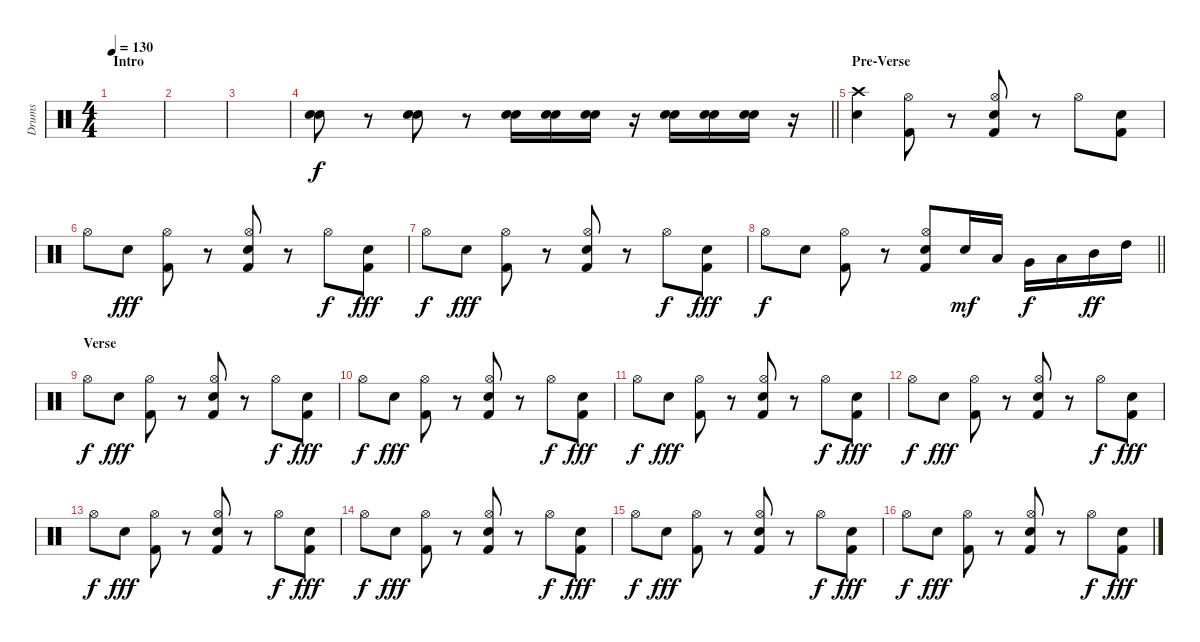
\track ("Drums" "Drums") {instrument percussion}
\staff {score}
\articulation defaults
\ts (4 4)
\section ("" "Intro")
\tempo 130
\clef neutral
\ks c
|
|
|
\barLineRight lightlight
("Electric Snare (hit)" "Snare (hit) 2").8 r.8 ("Electric Snare (hit)" "Snare (hit) 2").8 r.8 ("Electric Snare (hit)" "Snare (hit) 2").16 ("Electric Snare (hit)" "Snare (hit) 2").16 ("Electric Snare (hit)" "Snare (hit) 2").16 r.16 ("Electric Snare (hit)" "Snare (hit) 2").16 ("Electric Snare (hit)" "Snare (hit) 2").16 ("Electric Snare (hit)" "Snare (hit) 2").16 r.16 |
\section ("" "Pre-Verse")
("Crash high (hit)" "Electric Snare (hit)").4 ("Hi-Hat (open)" "Kick (hit) 2").8 r.8 ("Hi-Hat (open)" "Electric Snare (hit)" "Kick (hit) 2").8 r.8 "Hi-Hat (open)".8 ("Electric Snare (hit)" "Kick (hit) 2").8 |
"Hi-Hat (open)".8 "Snare (hit) 2".8{dy fff} ("Hi-Hat (open)" "Kick (hit) 2").8 r.8 ("Hi-Hat (open)" "Snare (hit) 2" "Kick (hit) 2").8 r.8 "Hi-Hat (open)".8{dy f} ("Snare (hit) 2" "Kick (hit) 2").8{dy fff} |
"Hi-Hat (open)".8{dy f} "Snare (hit) 2".8{dy fff} ("Hi-Hat (open)" "Kick (hit) 2").8 r.8 ("Hi-Hat (open)" "Snare (hit) 2" "Kick (hit) 2").8 r.8 "Hi-Hat (open)".8{dy f} ("Snare (hit) 2" "Kick (hit) 2").8{dy fff} |
\barLineRight lightlight "Hi-Hat (open)".8{dy f} "Electric Snare (hit)".8
("Hi-Hat (open)" "Kick (hit) 2").8 r.8 ("Hi-Hat (open)" "Electric Snare (hit)" "Kick (hit) 2").8 "Electric Snare (hit)".16{dy mf} "Low Floor Tom (hit)".16 "Very Low Tom (hit)".16{dy f} "Low Tom (hit)".16 "Mid Tom (hit)".16{dy ff} "High Tom (hit)".16 |
\section ("" "Verse")
"Hi-Hat (open)".8{dy f} "Snare (hit) 2".8{dy fff} ("Hi-Hat (open)" "Kick (hit) 2").8 r.8 ("Hi-Hat (open)" "Snare (hit) 2" "Kick (hit) 2").8 r.8 "Hi-Hat (open)".8{dy f} ("Snare (hit) 2" "Kick (hit) 2").8{dy fff} |
"Hi-Hat (open)".8{dy f} "Snare (hit) 2".8{dy fff} ("Hi-Hat (open)" "Kick (hit) 2").8 r.8 ("Hi-Hat (open)" "Snare (hit) 2" "Kick (hit) 2").8 r.8 "Hi-Hat (open)".8{dy f} ("Snare (hit) 2" "Kick (hit) 2").8{dy fff} |
"Hi-Hat (open)".8{dy f} "Snare (hit) 2".8{dy fff} ("Hi-Hat (open)" "Kick (hit) 2").8 r.8 ("Hi-Hat (open)" "Snare (hit) 2" "Kick (hit) 2").8 r.8 "Hi-Hat (open)".8{dy f} ("Snare (hit) 2" "Kick (hit) 2").8{dy fff} |
"Hi-Hat (open)".8{dy f} "Snare (hit) 2".8{dy fff} ("Hi-Hat (open)" "Kick (hit) 2").8 r.8 ("Hi-Hat (open)" "Snare (hit) 2" "Kick (hit) 2").8 r.8 "Hi-Hat (open)".8{dy f} ("Snare (hit) 2" "Kick (hit) 2").8{dy fff} |
"Hi-Hat (open)".8{dy f} "Snare (hit) 2".8{dy fff} ("Hi-Hat (open)" "Kick (hit) 2").8 r.8 ("Hi-Hat (open)" "Snare (hit) 2" "Kick (hit) 2").8 r.8 "Hi-Hat (open)".8{dy f} ("Snare (hit) 2" "Kick (hit) 2").8{dy fff} |
"Hi-Hat (open)".8{dy f} "Snare (hit) 2".8{dy fff} ("Hi-Hat (open)" "Kick (hit) 2").8 r.8 ("Hi-Hat (open)" "Snare (hit) 2" "Kick (hit) 2").8 r.8 "Hi-Hat (open)".8{dy f} ("Snare (hit) 2" "Kick (hit) 2").8{dy fff} |
"Hi-Hat (open)".8{dy f} "Snare (hit) 2".8{dy fff} ("Hi-Hat (open)" "Kick (hit) 2").8 r.8 ("Hi-Hat (open)" "Snare (hit) 2" "Kick (hit) 2").8 r.8 "Hi-Hat (open)".8{dy f} ("Snare (hit) 2" "Kick (hit) 2").8{dy fff} |
"Hi-Hat (open)".8{dy f} "Snare (hit) 2".8{dy fff} ("Hi-Hat (open)" "Kick (hit) 2").8 r.8 ("Hi-Hat (open)" "Snare (hit) 2" "Kick (hit) 2").8 r.8 "Hi-Hat (open)".8{dy f} ("Snare (hit) 2" "Kick (hit) 2").8{dy fff}
